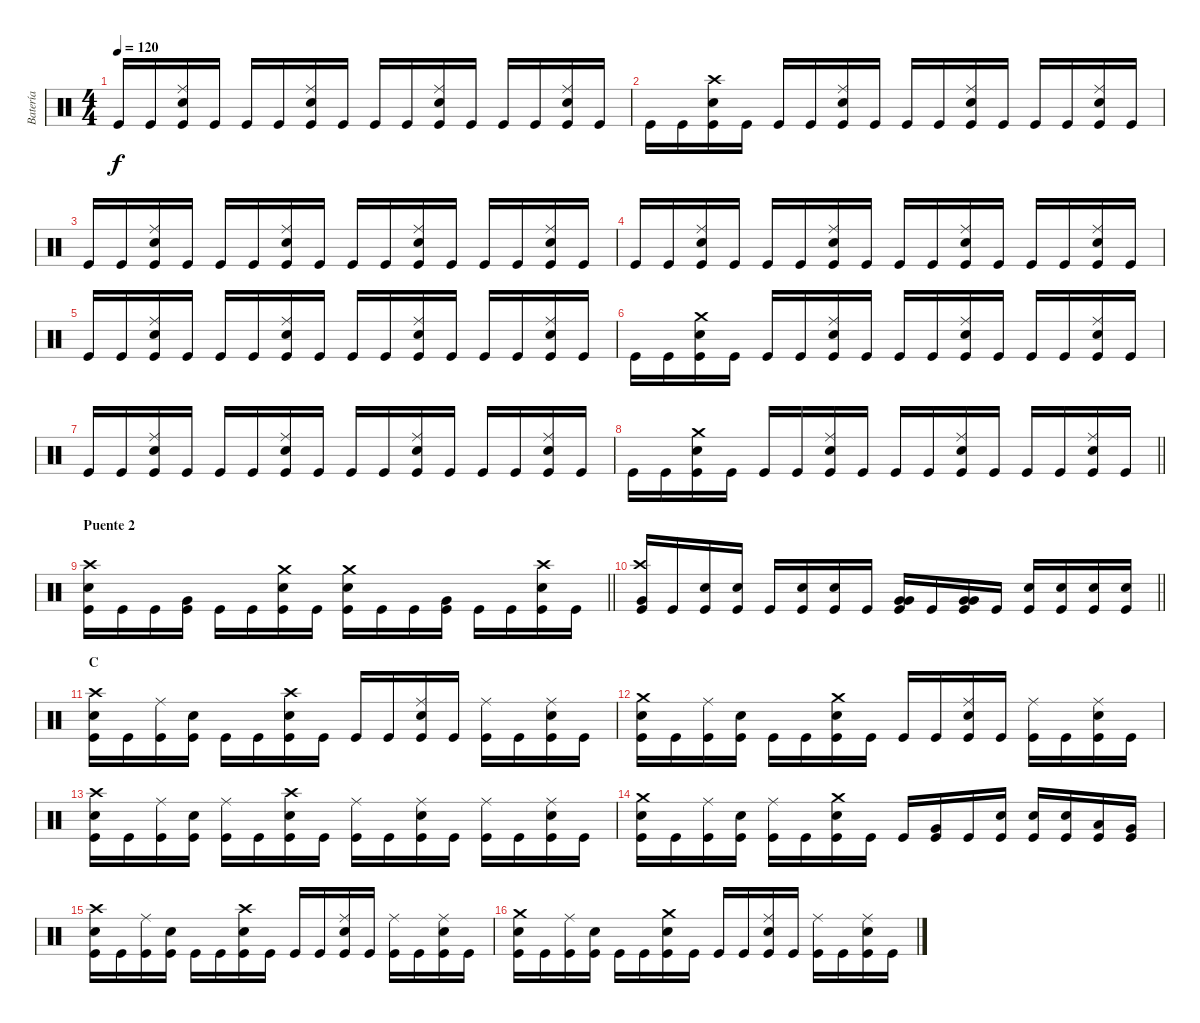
\track ("Batería" "Batería") {instrument percussion}
\staff {score}
\articulation defaults
\ts (4 4)
\tempo 120
\clef neutral
\ks c "Kick (hit)".16{dy f} "Kick (hit)".16
("Ride (middle)" "Snare (hit) 2" "Kick (hit)").16 "Kick (hit)".16 "Kick (hit)".16 "Kick (hit)".16 ("Ride (middle)" "Snare (hit) 2" "Kick (hit)").16 "Kick (hit)".16 "Kick (hit)".16 "Kick (hit)".16 ("Ride (middle)" "Snare (hit) 2" "Kick (hit)").16 "Kick (hit)".16 "Kick (hit)".16 "Kick (hit)".16 ("Ride (middle)" "Snare (hit) 2" "Kick (hit)").16 "Kick (hit)".16 |
"Kick (hit)".16 "Kick (hit)".16 ("Crash high (hit)" "Snare (hit) 2" "Kick (hit)").16 "Kick (hit)".16 "Kick (hit)".16 "Kick (hit)".16 ("Ride (middle)" "Snare (hit) 2" "Kick (hit)").16 "Kick (hit)".16 "Kick (hit)".16 "Kick (hit)".16 ("Ride (middle)" "Snare (hit) 2" "Kick (hit)").16 "Kick (hit)".16 "Kick (hit)".16 "Kick (hit)".16 ("Ride (middle)" "Snare (hit) 2" "Kick (hit)").16 "Kick (hit)".16 |
"Kick (hit)".16 "Kick (hit)".16 ("Ride (middle)" "Snare (hit) 2" "Kick (hit)").16 "Kick (hit)".16 "Kick (hit)".16 "Kick (hit)".16 ("Ride (middle)" "Snare (hit) 2" "Kick (hit)").16 "Kick (hit)".16 "Kick (hit)".16 "Kick (hit)".16 ("Ride (middle)" "Snare (hit) 2" "Kick (hit)").16 "Kick (hit)".16 "Kick (hit)".16 "Kick (hit)".16 ("Ride (middle)" "Snare (hit) 2" "Kick (hit)").16 "Kick (hit)".16 |
"Kick (hit)".16 "Kick (hit)".16 ("Ride (middle)" "Snare (hit) 2" "Kick (hit)").16 "Kick (hit)".16 "Kick (hit)".16 "Kick (hit)".16 ("Ride (middle)" "Snare (hit) 2" "Kick (hit)").16 "Kick (hit)".16 "Kick (hit)".16 "Kick (hit)".16 ("Ride (middle)" "Snare (hit) 2" "Kick (hit)").16 "Kick (hit)".16 "Kick (hit)".16 "Kick (hit)".16 ("Ride (middle)" "Snare (hit) 2" "Kick (hit)").16 "Kick (hit)".16 |
"Kick (hit)".16 "Kick (hit)".16 ("Ride (middle)" "Snare (hit) 2" "Kick (hit)").16 "Kick (hit)".16 "Kick (hit)".16 "Kick (hit)".16 ("Ride (middle)" "Snare (hit) 2" "Kick (hit)").16 "Kick (hit)".16 "Kick (hit)".16 "Kick (hit)".16 ("Ride (middle)" "Snare (hit) 2" "Kick (hit)").16 "Kick (hit)".16 "Kick (hit)".16 "Kick (hit)".16 ("Ride (middle)" "Snare (hit) 2" "Kick (hit)").16 "Kick (hit)".16 |
"Kick (hit)".16 "Kick (hit)".16 ("Crash medium (hit)" "Snare (hit) 2" "Kick (hit)").16 "Kick (hit)".16 "Kick (hit)".16 "Kick (hit)".16 ("Ride (middle)" "Snare (hit) 2" "Kick (hit)").16 "Kick (hit)".16 "Kick (hit)".16 "Kick (hit)".16 ("Ride (middle)" "Snare (hit) 2" "Kick (hit)").16 "Kick (hit)".16 "Kick (hit)".16 "Kick (hit)".16 ("Ride (middle)" "Snare (hit) 2" "Kick (hit)").16 "Kick (hit)".16 |
"Kick (hit)".16 "Kick (hit)".16 ("Ride (middle)" "Snare (hit) 2" "Kick (hit)").16 "Kick (hit)".16 "Kick (hit)".16 "Kick (hit)".16 ("Ride (middle)" "Snare (hit) 2" "Kick (hit)").16 "Kick (hit)".16 "Kick (hit)".16 "Kick (hit)".16 ("Ride (middle)" "Snare (hit) 2" "Kick (hit)").16 "Kick (hit)".16 "Kick (hit)".16 "Kick (hit)".16 ("Ride (middle)" "Snare (hit) 2" "Kick (hit)").16 "Kick (hit)".16 |
\barLineRight lightlight "Kick (hit)".16 "Kick (hit)".16
("Crash medium (hit)" "Snare (hit) 2" "Kick (hit)").16 "Kick (hit)".16 "Kick (hit)".16 "Kick (hit)".16 ("Ride (middle)" "Snare (hit) 2" "Kick (hit)").16 "Kick (hit)".16 "Kick (hit)".16 "Kick (hit)".16 ("Ride (middle)" "Snare (hit) 2" "Kick (hit)").16 "Kick (hit)".16 "Kick (hit)".16 "Kick (hit)".16 ("Ride (middle)" "Snare (hit) 2" "Kick (hit)").16 "Kick (hit)".16 |
\section ("" "Puente 2")
\barLineRight lightlight
("Crash high (hit)" "Snare (hit) 2" "Kick (hit)").16 "Kick (hit)".16 "Kick (hit)".16 ("Very Low Tom (hit)" "Kick (hit)").16 "Kick (hit)".16 "Kick (hit)".16 ("Crash medium (hit)" "Snare (hit) 2" "Kick (hit)").16 "Kick (hit)".16 ("Crash medium (hit)" "Snare (hit) 2" "Kick (hit)").16 "Kick (hit)".16 "Kick (hit)".16 ("Very Low Tom (hit)" "Kick (hit)").16 "Kick (hit)".16 "Kick (hit)".16 ("Crash high (hit)" "Snare (hit) 2" "Kick (hit)").16 "Kick (hit)".16 |
\barLineRight lightlight
("Crash high (hit)" "Very Low Tom (hit)" "Kick (hit)").16 "Kick (hit)".16 ("Snare (hit) 2" "Kick (hit)").16 ("Snare (hit) 2" "Kick (hit)").16 "Kick (hit)".16 ("Snare (hit) 2" "Kick (hit)").16 ("Snare (hit) 2" "Kick (hit)").16 "Kick (hit)".16 ("Very Low Tom (hit)" "Very Low Tom (hit)" "Kick (hit)").16 "Kick (hit)".16 ("Very Low Tom (hit)" "Very Low Tom (hit)" "Kick (hit)").16 "Kick (hit)".16 ("Snare (hit) 2" "Kick (hit)").16 ("Snare (hit) 2" "Kick (hit)").16 ("Snare (hit) 2" "Kick (hit)").16 ("Snare (hit) 2" "Kick (hit)").16 |
\section ("" "C")
("Crash high (hit)" "Snare (hit) 2" "Kick (hit)").16 "Kick (hit)".16 ("Ride (middle)" "Kick (hit)").16 ("Snare (hit) 2" "Kick (hit)").16 "Kick (hit)".16 "Kick (hit)".16 ("Crash high (hit)" "Snare (hit) 2" "Kick (hit)").16 "Kick (hit)".16 "Kick (hit)".16 "Kick (hit)".16 ("Ride (middle)" "Snare (hit) 2" "Kick (hit)").16 "Kick (hit)".16 ("Ride (middle)" "Kick (hit)").16 "Kick (hit)".16 ("Ride (middle)" "Snare (hit) 2" "Kick (hit)").16 "Kick (hit)".16 |
("Crash medium (hit)" "Snare (hit) 2" "Kick (hit)").16 "Kick (hit)".16 ("Ride (middle)" "Kick (hit)").16 ("Snare (hit) 2" "Kick (hit)").16 "Kick (hit)".16 "Kick (hit)".16 ("Crash medium (hit)" "Snare (hit) 2" "Kick (hit)").16 "Kick (hit)".16 "Kick (hit)".16 "Kick (hit)".16 ("Ride (middle)" "Snare (hit) 2" "Kick (hit)").16 "Kick (hit)".16 ("Ride (middle)" "Kick (hit)").16 "Kick (hit)".16 ("Ride (middle)" "Snare (hit) 2" "Kick (hit)").16 "Kick (hit)".16 |
("Crash high (hit)" "Snare (hit) 2" "Kick (hit)").16 "Kick (hit)".16 ("Ride (middle)" "Kick (hit)").16 ("Snare (hit) 2" "Kick (hit)").16 ("Ride (middle)" "Kick (hit)").16 "Kick (hit)".16 ("Crash high (hit)" "Snare (hit) 2" "Kick (hit)").16 "Kick (hit)".16 ("Ride (middle)" "Kick (hit)").16 "Kick (hit)".16 ("Ride (middle)" "Snare (hit) 2" "Kick (hit)").16 "Kick (hit)".16 ("Ride (middle)" "Kick (hit)").16 "Kick (hit)".16 ("Ride (middle)" "Snare (hit) 2" "Kick (hit)").16 "Kick (hit)".16 |
("Crash medium (hit)" "Snare (hit) 2" "Kick (hit)").16 "Kick (hit)".16 ("Ride (middle)" "Kick (hit)").16 ("Snare (hit) 2" "Kick (hit)").16 ("Ride (middle)" "Kick (hit)").16 "Kick (hit)".16 ("Crash medium (hit)" "Snare (hit) 2" "Kick (hit)").16 "Kick (hit)".16 "Kick (hit)".16 ("Very Low Tom (hit)" "Kick (hit)").16 "Kick (hit)".16 ("Snare (hit) 2" "Kick (hit)").16 ("Snare (hit) 2" "Kick (hit)").16 ("Snare (hit) 2" "Kick (hit)").16 ("Low Tom (hit)" "Kick (hit)").16 ("Very Low Tom (hit)" "Kick (hit)").16 |
("Crash high (hit)" "Snare (hit) 2" "Kick (hit)").16 "Kick (hit)".16 ("Ride (middle)" "Kick (hit)").16 ("Snare (hit) 2" "Kick (hit)").16 "Kick (hit)".16 "Kick (hit)".16 ("Crash high (hit)" "Snare (hit) 2" "Kick (hit)").16 "Kick (hit)".16 "Kick (hit)".16 "Kick (hit)".16 ("Ride (middle)" "Snare (hit) 2" "Kick (hit)").16 "Kick (hit)".16 ("Ride (middle)" "Kick (hit)").16 "Kick (hit)".16 ("Ride (middle)" "Snare (hit) 2" "Kick (hit)").16 "Kick (hit)".16 |
("Crash medium (hit)" "Snare (hit) 2" "Kick (hit)").16 "Kick (hit)".16 ("Ride (middle)" "Kick (hit)").16 ("Snare (hit) 2" "Kick (hit)").16 "Kick (hit)".16 "Kick (hit)".16 ("Crash medium (hit)" "Snare (hit) 2" "Kick (hit)").16 "Kick (hit)".16 "Kick (hit)".16 "Kick (hit)".16 ("Ride (middle)" "Snare (hit) 2" "Kick (hit)").16 "Kick (hit)".16 ("Ride (middle)" "Kick (hit)").16 "Kick (hit)".16 ("Ride (middle)" "Snare (hit) 2" "Kick (hit)").16 "Kick (hit)".16
